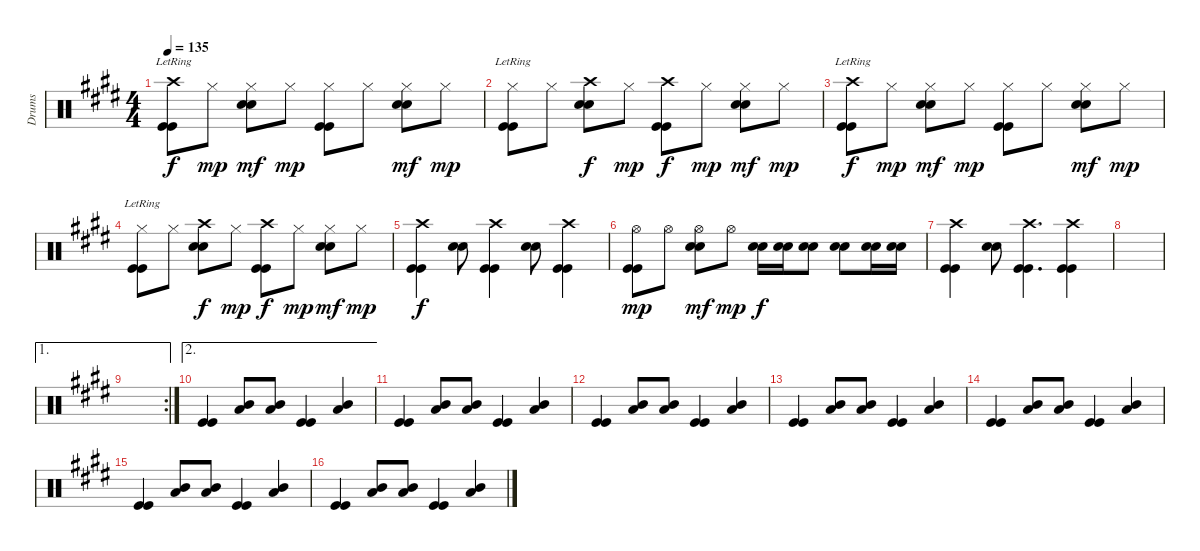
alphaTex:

\track ("Drums" "Drums") {instrument percussion}
\staff {score}
\articulation defaults
\ts (4 4)
\tempo 135
\clef neutral
\ks e
("Crash high (hit)"{lr} "Kick (hit)" "Kick (hit)").8{dy f} "Hi-Hat (closed)".8{dy mp} ("Hi-Hat (closed)" "Snare (hit) 2" "Snare (hit) 2").8{dy mf} "Hi-Hat (closed)".8{dy mp} ("Hi-Hat (closed)" "Kick (hit)" "Kick (hit)").8 "Hi-Hat (closed)".8 ("Hi-Hat (closed)" "Snare (hit) 2" "Snare (hit) 2").8{dy mf} "Hi-Hat (closed)".8{dy mp} |
("Hi-Hat (closed)"{lr} "Kick (hit)" "Kick (hit)").8 "Hi-Hat (closed)".8 ("Crash high (hit)" "Snare (hit) 2" "Snare (hit) 2").8{dy f} "Hi-Hat (closed)".8{dy mp} ("Crash high (hit)" "Kick (hit)" "Kick (hit)").8{dy f} "Hi-Hat (closed)".8{dy mp} ("Hi-Hat (closed)" "Snare (hit) 2" "Snare (hit) 2").8{dy mf} "Hi-Hat (closed)".8{dy mp} |
("Crash high (hit)"{lr} "Kick (hit)" "Kick (hit)").8{dy f} "Hi-Hat (closed)".8{dy mp} ("Hi-Hat (closed)" "Snare (hit) 2" "Snare (hit) 2").8{dy mf} "Hi-Hat (closed)".8{dy mp} ("Hi-Hat (closed)" "Kick (hit)" "Kick (hit)").8 "Hi-Hat (closed)".8 ("Hi-Hat (closed)" "Snare (hit) 2" "Snare (hit) 2").8{dy mf} "Hi-Hat (closed)".8{dy mp} |
("Hi-Hat (closed)"{lr} "Kick (hit)" "Kick (hit)").8 "Hi-Hat (closed)".8 ("Crash high (hit)" "Snare (hit) 2" "Snare (hit) 2").8{dy f} "Hi-Hat (closed)".8{dy mp} ("Crash high (hit)" "Kick (hit)" "Kick (hit)").8{dy f} "Hi-Hat (closed)".8{dy mp} ("Hi-Hat (closed)" "Snare (hit) 2" "Snare (hit) 2").8{dy mf} "Hi-Hat (closed)".8{dy mp} |
("Crash high (hit)" "Kick (hit)" "Kick (hit)").4{dy f} ("Snare (hit) 2" "Snare (hit) 2").8 ("Crash high (hit)" "Kick (hit)" "Kick (hit)").4 ("Snare (hit) 2" "Snare (hit) 2").8 ("Crash high (hit)" "Kick (hit)" "Kick (hit)").4 |
("Hi-Hat (open)" "Kick (hit)" "Kick (hit)").8{dy mp} "Hi-Hat (open)".8 ("Hi-Hat (open)" "Snare (hit) 2" "Snare (hit) 2").8{dy mf} "Hi-Hat (open)".8{dy mp} ("Snare (hit) 2" "Snare (hit) 2").16{dy f} ("Snare (hit) 2" "Snare (hit) 2").16 ("Snare (hit) 2" "Snare (hit) 2").8 ("Snare (hit) 2" "Snare (hit) 2").8 ("Snare (hit) 2" "Snare (hit) 2").16 ("Snare (hit) 2" "Snare (hit) 2").16 |
("Crash high (hit)" "Kick (hit)" "Kick (hit)").4 ("Snare (hit) 2" "Snare (hit) 2").8 ("Crash high (hit)" "Kick (hit)" "Kick (hit)").4{d} ("Crash high (hit)" "Kick (hit)" "Kick (hit)").4 |
|
\ae 1
\rc 2
|
\ae 2
("Kick (hit)" "Kick (hit)").4 ("Low Tom (hit)" "Mid Tom (hit)").8 ("Low Tom (hit)" "Mid Tom (hit)").8 ("Kick (hit)" "Kick (hit)").4 ("Low Tom (hit)" "Mid Tom (hit)").4 |
("Kick (hit)" "Kick (hit)").4 ("Low Tom (hit)" "Mid Tom (hit)").8 ("Low Tom (hit)" "Mid Tom (hit)").8 ("Kick (hit)" "Kick (hit)").4 ("Low Tom (hit)" "Mid Tom (hit)").4 |
("Kick (hit)" "Kick (hit)").4 ("Low Tom (hit)" "Mid Tom (hit)").8 ("Low Tom (hit)" "Mid Tom (hit)").8 ("Kick (hit)" "Kick (hit)").4 ("Low Tom (hit)" "Mid Tom (hit)").4 |
("Kick (hit)" "Kick (hit)").4 ("Low Tom (hit)" "Mid Tom (hit)").8 ("Low Tom (hit)" "Mid Tom (hit)").8 ("Kick (hit)" "Kick (hit)").4 ("Low Tom (hit)" "Mid Tom (hit)").4 |
("Kick (hit)" "Kick (hit)").4 ("Low Tom (hit)" "Mid Tom (hit)").8 ("Low Tom (hit)" "Mid Tom (hit)").8 ("Kick (hit)" "Kick (hit)").4 ("Low Tom (hit)" "Mid Tom (hit)").4 |
("Kick (hit)" "Kick (hit)").4 ("Low Tom (hit)" "Mid Tom (hit)").8 ("Low Tom (hit)" "Mid Tom (hit)").8 ("Kick (hit)" "Kick (hit)").4 ("Low Tom (hit)" "Mid Tom (hit)").4 |
("Kick (hit)" "Kick (hit)").4 ("Low Tom (hit)" "Mid Tom (hit)").8 ("Low Tom (hit)" "Mid Tom (hit)").8 ("Kick (hit)" "Kick (hit)").4 ("Low Tom (hit)" "Mid Tom (hit)").4
